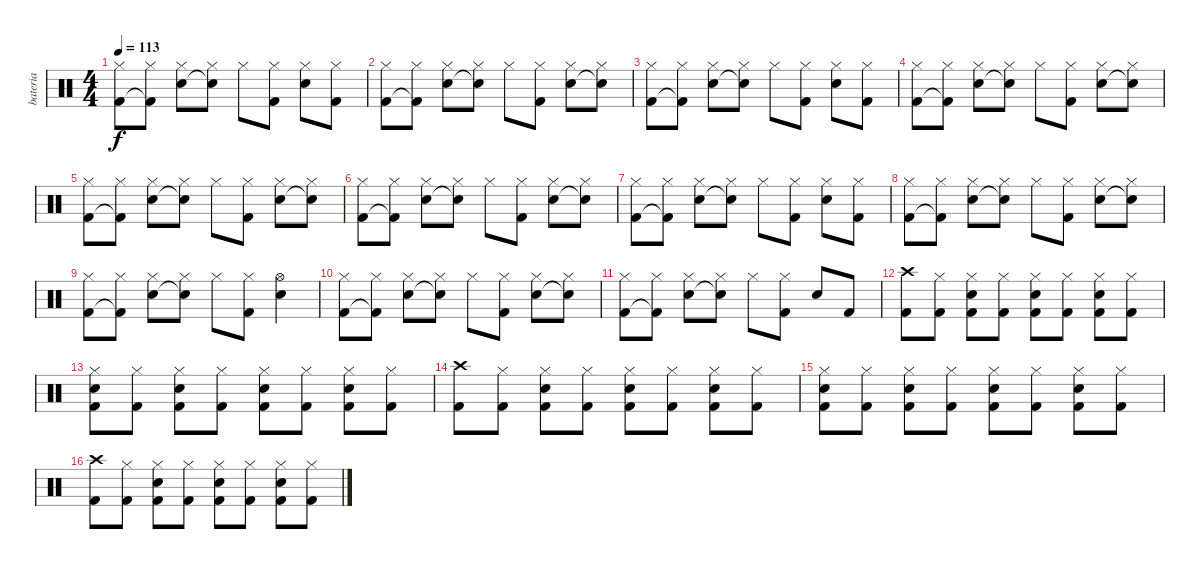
\track ("bateria" "bateria") {instrument percussion}
\staff {score}
\articulation defaults
\ts (4 4)
\tempo 113
\clef neutral
\ks c
("Hi-Hat (closed)" "Kick (hit) 2").8{dy f} ("Hi-Hat (closed)" "Kick (hit) 2"{t}).8 ("Hi-Hat (closed)" "Snare (hit) 2").8 ("Hi-Hat (closed)" "Snare (hit) 2"{t}).8 "Hi-Hat (closed)".8 ("Hi-Hat (closed)" "Kick (hit) 2").8 ("Hi-Hat (closed)" "Snare (hit) 2").8 ("Hi-Hat (closed)" "Kick (hit) 2").8 |
("Hi-Hat (closed)" "Kick (hit) 2").8 ("Hi-Hat (closed)" "Kick (hit) 2"{t}).8 ("Hi-Hat (closed)" "Snare (hit) 2").8 ("Hi-Hat (closed)" "Snare (hit) 2"{t}).8 "Hi-Hat (closed)".8 ("Hi-Hat (closed)" "Kick (hit) 2").8 ("Hi-Hat (closed)" "Snare (hit) 2").8 ("Hi-Hat (closed)" "Snare (hit) 2"{t}).8 |
("Hi-Hat (closed)" "Kick (hit) 2").8 ("Hi-Hat (closed)" "Kick (hit) 2"{t}).8 ("Hi-Hat (closed)" "Snare (hit) 2").8 ("Hi-Hat (closed)" "Snare (hit) 2"{t}).8 "Hi-Hat (closed)".8 ("Hi-Hat (closed)" "Kick (hit) 2").8 ("Hi-Hat (closed)" "Snare (hit) 2").8 ("Hi-Hat (closed)" "Kick (hit) 2").8 |
("Hi-Hat (closed)" "Kick (hit) 2").8 ("Hi-Hat (closed)" "Kick (hit) 2"{t}).8 ("Hi-Hat (closed)" "Snare (hit) 2").8 ("Hi-Hat (closed)" "Snare (hit) 2"{t}).8 "Hi-Hat (closed)".8 ("Hi-Hat (closed)" "Kick (hit) 2").8 ("Hi-Hat (closed)" "Snare (hit) 2").8 ("Hi-Hat (closed)" "Snare (hit) 2"{t}).8 |
("Hi-Hat (closed)" "Kick (hit) 2").8 ("Hi-Hat (closed)" "Kick (hit) 2"{t}).8 ("Hi-Hat (closed)" "Snare (hit) 2").8 ("Hi-Hat (closed)" "Snare (hit) 2"{t}).8 "Hi-Hat (closed)".8 ("Hi-Hat (closed)" "Kick (hit) 2").8 ("Hi-Hat (closed)" "Snare (hit) 2").8 ("Hi-Hat (closed)" "Snare (hit) 2"{t}).8 |
("Hi-Hat (closed)" "Kick (hit) 2").8 ("Hi-Hat (closed)" "Kick (hit) 2"{t}).8 ("Hi-Hat (closed)" "Snare (hit) 2").8 ("Hi-Hat (closed)" "Snare (hit) 2"{t}).8 "Hi-Hat (closed)".8 ("Hi-Hat (closed)" "Kick (hit) 2").8 ("Hi-Hat (closed)" "Snare (hit) 2").8 ("Hi-Hat (closed)" "Snare (hit) 2"{t}).8 |
("Hi-Hat (closed)" "Kick (hit) 2").8 ("Hi-Hat (closed)" "Kick (hit) 2"{t}).8 ("Hi-Hat (closed)" "Snare (hit) 2").8 ("Hi-Hat (closed)" "Snare (hit) 2"{t}).8 "Hi-Hat (closed)".8 ("Hi-Hat (closed)" "Kick (hit) 2").8 ("Hi-Hat (closed)" "Snare (hit) 2").8 ("Hi-Hat (closed)" "Kick (hit) 2").8 |
("Hi-Hat (closed)" "Kick (hit) 2").8 ("Hi-Hat (closed)" "Kick (hit) 2"{t}).8 ("Hi-Hat (closed)" "Snare (hit) 2").8 ("Hi-Hat (closed)" "Snare (hit) 2"{t}).8 "Hi-Hat (closed)".8 ("Hi-Hat (closed)" "Kick (hit) 2").8 ("Hi-Hat (closed)" "Snare (hit) 2").8 ("Hi-Hat (closed)" "Snare (hit) 2"{t}).8 |
("Hi-Hat (closed)" "Kick (hit) 2").8 ("Hi-Hat (closed)" "Kick (hit) 2"{t}).8 ("Hi-Hat (closed)" "Snare (hit) 2").8 ("Hi-Hat (closed)" "Snare (hit) 2"{t}).8 "Hi-Hat (closed)".8 ("Hi-Hat (closed)" "Kick (hit) 2").8 ("Hi-Hat (open)" "Snare (hit) 2").4 |
("Hi-Hat (closed)" "Kick (hit) 2").8 ("Hi-Hat (closed)" "Kick (hit) 2"{t}).8 ("Hi-Hat (closed)" "Snare (hit) 2").8 ("Hi-Hat (closed)" "Snare (hit) 2"{t}).8 "Hi-Hat (closed)".8 ("Hi-Hat (closed)" "Kick (hit) 2").8 ("Hi-Hat (closed)" "Snare (hit) 2").8 ("Hi-Hat (closed)" "Snare (hit) 2"{t}).8 |
("Hi-Hat (closed)" "Kick (hit) 2").8 ("Hi-Hat (closed)" "Kick (hit) 2"{t}).8 ("Hi-Hat (closed)" "Snare (hit) 2").8 ("Hi-Hat (closed)" "Snare (hit) 2"{t}).8 "Hi-Hat (closed)".8 ("Hi-Hat (closed)" "Kick (hit) 2").8 "Snare (hit) 2".8 "Kick (hit) 2".8 |
("Crash high (hit)" "Kick (hit) 2").8 ("Hi-Hat (closed)" "Kick (hit) 2").8 ("Hi-Hat (closed)" "Snare (hit) 2" "Kick (hit) 2").8 ("Hi-Hat (closed)" "Kick (hit) 2").8 ("Hi-Hat (closed)" "Snare (hit) 2" "Kick (hit) 2").8 ("Hi-Hat (closed)" "Kick (hit) 2").8 ("Hi-Hat (closed)" "Snare (hit) 2" "Kick (hit) 2").8 ("Hi-Hat (closed)" "Kick (hit) 2").8 |
("Hi-Hat (closed)" "Snare (hit) 2" "Kick (hit) 2").8 ("Hi-Hat (closed)" "Kick (hit) 2").8 ("Hi-Hat (closed)" "Snare (hit) 2" "Kick (hit) 2").8 ("Hi-Hat (closed)" "Kick (hit) 2").8 ("Hi-Hat (closed)" "Snare (hit) 2" "Kick (hit) 2").8 ("Hi-Hat (closed)" "Kick (hit) 2").8 ("Hi-Hat (closed)" "Snare (hit) 2" "Kick (hit) 2").8 ("Hi-Hat (closed)" "Kick (hit) 2").8 |
("Crash high (hit)" "Kick (hit) 2").8 ("Hi-Hat (closed)" "Kick (hit) 2").8 ("Hi-Hat (closed)" "Snare (hit) 2" "Kick (hit) 2").8 ("Hi-Hat (closed)" "Kick (hit) 2").8 ("Hi-Hat (closed)" "Snare (hit) 2" "Kick (hit) 2").8 ("Hi-Hat (closed)" "Kick (hit) 2").8 ("Hi-Hat (closed)" "Snare (hit) 2" "Kick (hit) 2").8 ("Hi-Hat (closed)" "Kick (hit) 2").8 |
("Hi-Hat (closed)" "Snare (hit) 2" "Kick (hit) 2").8 ("Hi-Hat (closed)" "Kick (hit) 2").8 ("Hi-Hat (closed)" "Snare (hit) 2" "Kick (hit) 2").8 ("Hi-Hat (closed)" "Kick (hit) 2").8 ("Hi-Hat (closed)" "Snare (hit) 2" "Kick (hit) 2").8 ("Hi-Hat (closed)" "Kick (hit) 2").8 ("Hi-Hat (closed)" "Snare (hit) 2" "Kick (hit) 2").8 ("Hi-Hat (closed)" "Kick (hit) 2").8 |
("Crash high (hit)" "Kick (hit) 2").8 ("Hi-Hat (closed)" "Kick (hit) 2").8 ("Hi-Hat (closed)" "Snare (hit) 2" "Kick (hit) 2").8 ("Hi-Hat (closed)" "Kick (hit) 2").8 ("Hi-Hat (closed)" "Snare (hit) 2" "Kick (hit) 2").8 ("Hi-Hat (closed)" "Kick (hit) 2").8 ("Hi-Hat (closed)" "Snare (hit) 2" "Kick (hit) 2").8 ("Hi-Hat (closed)" "Kick (hit) 2").8
